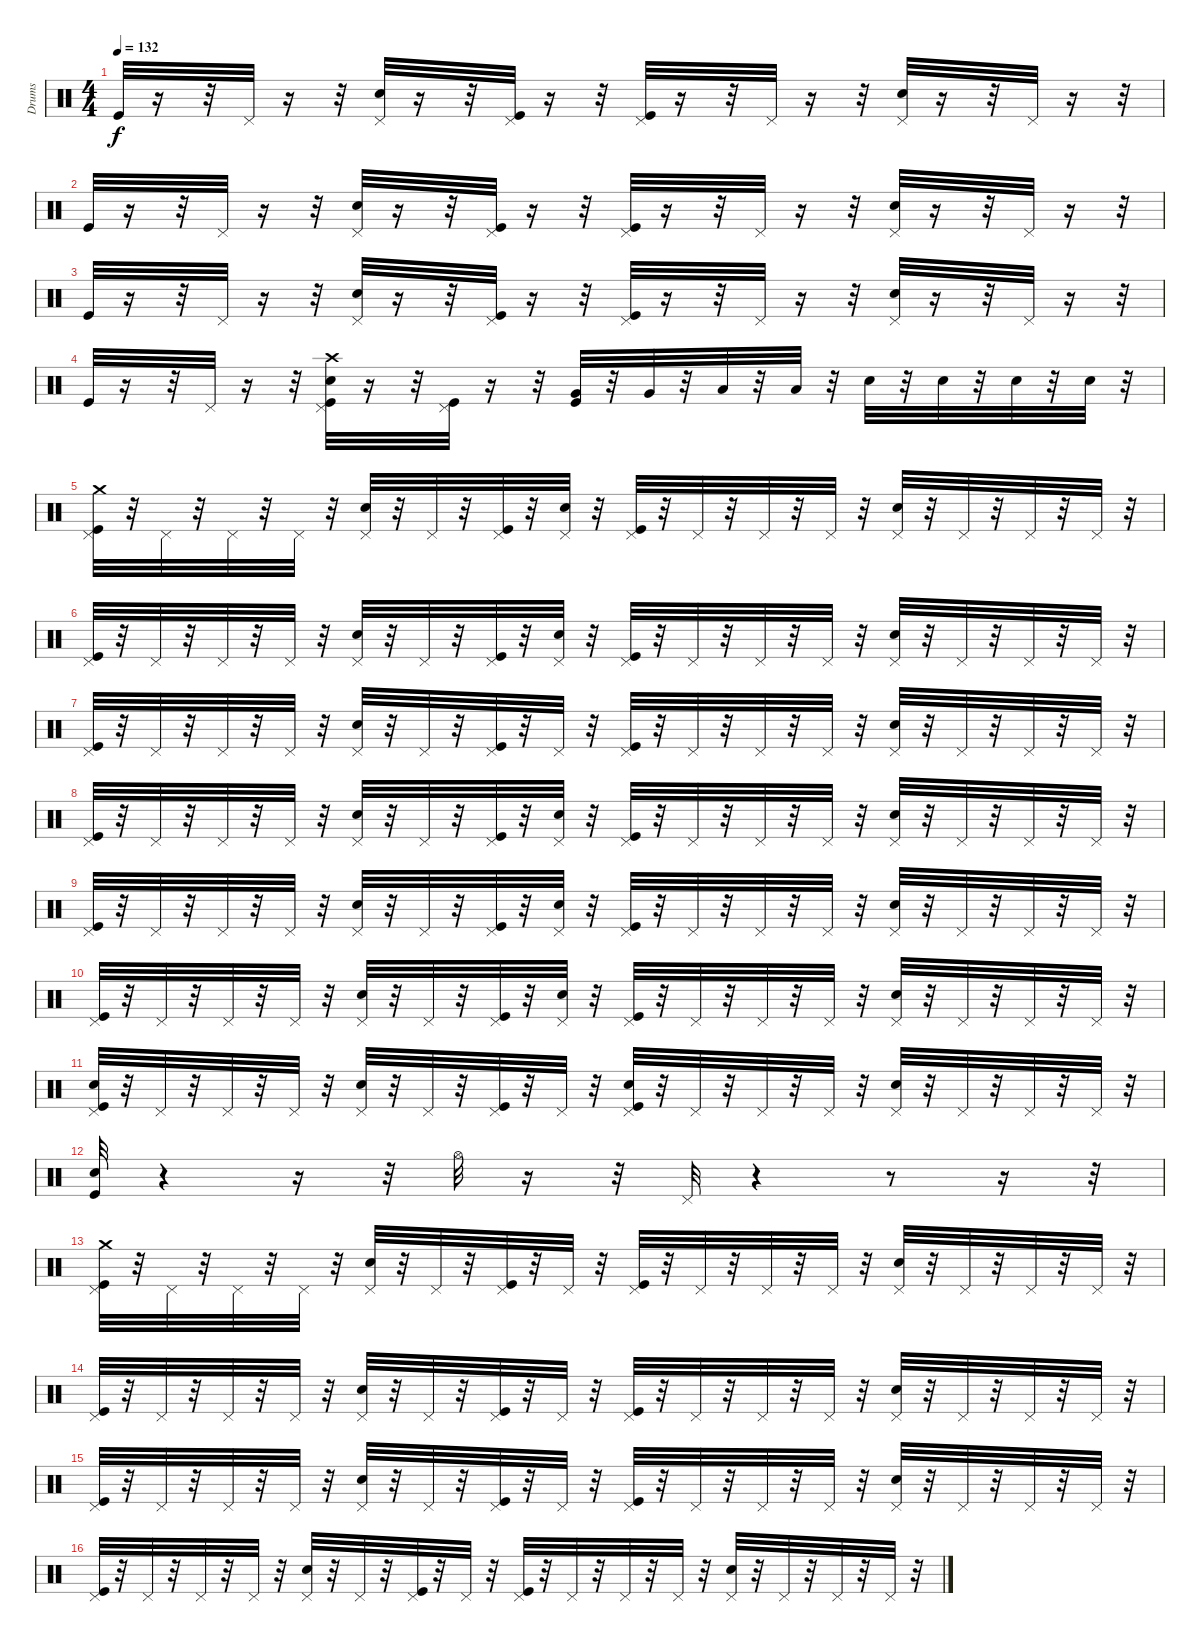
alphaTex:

\track ("Drums" "Drums") {instrument percussion}
\staff {score}
\articulation defaults
\ts (4 4)
\tempo 132
\clef neutral
\ks c "Kick (hit)".32{dy f}
r.16 r.32 "Pedal Hi-Hat (hit)".32 r.16 r.32 ("Electric Snare (hit)" "Pedal Hi-Hat (hit)").32 r.16 r.32 ("Kick (hit)" "Pedal Hi-Hat (hit)").32 r.16 r.32 ("Kick (hit)" "Pedal Hi-Hat (hit)").32 r.16 r.32 "Pedal Hi-Hat (hit)".32 r.16 r.32 ("Electric Snare (hit)" "Pedal Hi-Hat (hit)").32 r.16 r.32 "Pedal Hi-Hat (hit)".32 r.16 r.32 |
"Kick (hit)".32 r.16 r.32 "Pedal Hi-Hat (hit)".32 r.16 r.32 ("Electric Snare (hit)" "Pedal Hi-Hat (hit)").32 r.16 r.32 ("Kick (hit)" "Pedal Hi-Hat (hit)").32 r.16 r.32 ("Kick (hit)" "Pedal Hi-Hat (hit)").32 r.16 r.32 "Pedal Hi-Hat (hit)".32 r.16 r.32 ("Electric Snare (hit)" "Pedal Hi-Hat (hit)").32 r.16 r.32 "Pedal Hi-Hat (hit)".32 r.16 r.32 |
"Kick (hit)".32 r.16 r.32 "Pedal Hi-Hat (hit)".32 r.16 r.32 ("Electric Snare (hit)" "Pedal Hi-Hat (hit)").32 r.16 r.32 ("Kick (hit)" "Pedal Hi-Hat (hit)").32 r.16 r.32 ("Kick (hit)" "Pedal Hi-Hat (hit)").32 r.16 r.32 "Pedal Hi-Hat (hit)".32 r.16 r.32 ("Electric Snare (hit)" "Pedal Hi-Hat (hit)").32 r.16 r.32 "Pedal Hi-Hat (hit)".32 r.16 r.32 |
"Kick (hit)".32 r.16 r.32 "Pedal Hi-Hat (hit)".32 r.16 r.32 ("Kick (hit)" "Electric Snare (hit)" "Pedal Hi-Hat (hit)" "Crash high (hit)").32 r.16 r.32 ("Kick (hit)" "Pedal Hi-Hat (hit)").32 r.16 r.32 ("Very Low Tom (hit)" "Kick (hit)").32 r.32 "Very Low Tom (hit)".32 r.32 "Low Floor Tom (hit)".32 r.32 "Low Floor Tom (hit)".32 r.32 "Electric Snare (hit)".32 r.32 "Electric Snare (hit)".32 r.32 "Electric Snare (hit)".32 r.32 "Electric Snare (hit)".32 r.32 |
("Crash medium (hit)" "Kick (hit)" "Pedal Hi-Hat (hit)").32 r.32 "Pedal Hi-Hat (hit)".32 r.32 "Pedal Hi-Hat (hit)".32 r.32 "Pedal Hi-Hat (hit)".32 r.32 ("Pedal Hi-Hat (hit)" "Electric Snare (hit)").32 r.32 "Pedal Hi-Hat (hit)".32 r.32 ("Pedal Hi-Hat (hit)" "Kick (hit)").32 r.32 ("Electric Snare (hit)" "Pedal Hi-Hat (hit)").32 r.32 ("Pedal Hi-Hat (hit)" "Kick (hit)").32 r.32 "Pedal Hi-Hat (hit)".32 r.32 "Pedal Hi-Hat (hit)".32 r.32 "Pedal Hi-Hat (hit)".32 r.32 ("Pedal Hi-Hat (hit)" "Electric Snare (hit)").32 r.32 "Pedal Hi-Hat (hit)".32 r.32 "Pedal Hi-Hat (hit)".32 r.32 "Pedal Hi-Hat (hit)".32 r.32 |
("Pedal Hi-Hat (hit)" "Kick (hit)").32 r.32 "Pedal Hi-Hat (hit)".32 r.32 "Pedal Hi-Hat (hit)".32 r.32 "Pedal Hi-Hat (hit)".32 r.32 ("Pedal Hi-Hat (hit)" "Electric Snare (hit)").32 r.32 "Pedal Hi-Hat (hit)".32 r.32 ("Pedal Hi-Hat (hit)" "Kick (hit)").32 r.32 ("Electric Snare (hit)" "Pedal Hi-Hat (hit)").32 r.32 ("Pedal Hi-Hat (hit)" "Kick (hit)").32 r.32 "Pedal Hi-Hat (hit)".32 r.32 "Pedal Hi-Hat (hit)".32 r.32 "Pedal Hi-Hat (hit)".32 r.32 ("Pedal Hi-Hat (hit)" "Electric Snare (hit)").32 r.32 "Pedal Hi-Hat (hit)".32 r.32 "Pedal Hi-Hat (hit)".32 r.32 "Pedal Hi-Hat (hit)".32 r.32 |
("Pedal Hi-Hat (hit)" "Kick (hit)").32 r.32 "Pedal Hi-Hat (hit)".32 r.32 "Pedal Hi-Hat (hit)".32 r.32 "Pedal Hi-Hat (hit)".32 r.32 ("Pedal Hi-Hat (hit)" "Electric Snare (hit)").32 r.32 "Pedal Hi-Hat (hit)".32 r.32 ("Pedal Hi-Hat (hit)" "Kick (hit)").32 r.32 "Pedal Hi-Hat (hit)".32 r.32 ("Pedal Hi-Hat (hit)" "Kick (hit)").32 r.32 "Pedal Hi-Hat (hit)".32 r.32 "Pedal Hi-Hat (hit)".32 r.32 "Pedal Hi-Hat (hit)".32 r.32 ("Pedal Hi-Hat (hit)" "Electric Snare (hit)").32 r.32 "Pedal Hi-Hat (hit)".32 r.32 "Pedal Hi-Hat (hit)".32 r.32 "Pedal Hi-Hat (hit)".32 r.32 |
("Pedal Hi-Hat (hit)" "Kick (hit)").32 r.32 "Pedal Hi-Hat (hit)".32 r.32 "Pedal Hi-Hat (hit)".32 r.32 "Pedal Hi-Hat (hit)".32 r.32 ("Pedal Hi-Hat (hit)" "Electric Snare (hit)").32 r.32 "Pedal Hi-Hat (hit)".32 r.32 ("Pedal Hi-Hat (hit)" "Kick (hit)").32 r.32 ("Electric Snare (hit)" "Pedal Hi-Hat (hit)").32 r.32 ("Pedal Hi-Hat (hit)" "Kick (hit)").32 r.32 "Pedal Hi-Hat (hit)".32 r.32 "Pedal Hi-Hat (hit)".32 r.32 "Pedal Hi-Hat (hit)".32 r.32 ("Pedal Hi-Hat (hit)" "Electric Snare (hit)").32 r.32 "Pedal Hi-Hat (hit)".32 r.32 "Pedal Hi-Hat (hit)".32 r.32 "Pedal Hi-Hat (hit)".32 r.32 |
("Kick (hit)" "Pedal Hi-Hat (hit)").32 r.32 "Pedal Hi-Hat (hit)".32 r.32 "Pedal Hi-Hat (hit)".32 r.32 "Pedal Hi-Hat (hit)".32 r.32 ("Electric Snare (hit)" "Pedal Hi-Hat (hit)").32 r.32 "Pedal Hi-Hat (hit)".32 r.32 ("Kick (hit)" "Pedal Hi-Hat (hit)").32 r.32 ("Electric Snare (hit)" "Pedal Hi-Hat (hit)").32 r.32 ("Kick (hit)" "Pedal Hi-Hat (hit)").32 r.32 "Pedal Hi-Hat (hit)".32 r.32 "Pedal Hi-Hat (hit)".32 r.32 "Pedal Hi-Hat (hit)".32 r.32 ("Electric Snare (hit)" "Pedal Hi-Hat (hit)").32 r.32 "Pedal Hi-Hat (hit)".32 r.32 "Pedal Hi-Hat (hit)".32 r.32 "Pedal Hi-Hat (hit)".32 r.32 |
("Kick (hit)" "Pedal Hi-Hat (hit)").32 r.32 "Pedal Hi-Hat (hit)".32 r.32 "Pedal Hi-Hat (hit)".32 r.32 "Pedal Hi-Hat (hit)".32 r.32 ("Electric Snare (hit)" "Pedal Hi-Hat (hit)").32 r.32 "Pedal Hi-Hat (hit)".32 r.32 ("Kick (hit)" "Pedal Hi-Hat (hit)").32 r.32 ("Electric Snare (hit)" "Pedal Hi-Hat (hit)").32 r.32 ("Kick (hit)" "Pedal Hi-Hat (hit)").32 r.32 "Pedal Hi-Hat (hit)".32 r.32 "Pedal Hi-Hat (hit)".32 r.32 "Pedal Hi-Hat (hit)".32 r.32 ("Pedal Hi-Hat (hit)" "Electric Snare (hit)").32 r.32 "Pedal Hi-Hat (hit)".32 r.32 "Pedal Hi-Hat (hit)".32 r.32 "Pedal Hi-Hat (hit)".32 r.32 |
("Electric Snare (hit)" "Pedal Hi-Hat (hit)" "Kick (hit)").32 r.32 "Pedal Hi-Hat (hit)".32 r.32 "Pedal Hi-Hat (hit)".32 r.32 "Pedal Hi-Hat (hit)".32 r.32 ("Pedal Hi-Hat (hit)" "Electric Snare (hit)").32 r.32 "Pedal Hi-Hat (hit)".32 r.32 ("Pedal Hi-Hat (hit)" "Kick (hit)").32 r.32 "Pedal Hi-Hat (hit)".32 r.32 ("Electric Snare (hit)" "Pedal Hi-Hat (hit)" "Kick (hit)").32 r.32 "Pedal Hi-Hat (hit)".32 r.32 "Pedal Hi-Hat (hit)".32 r.32 "Pedal Hi-Hat (hit)".32 r.32 ("Pedal Hi-Hat (hit)" "Electric Snare (hit)").32 r.32 "Pedal Hi-Hat (hit)".32 r.32 "Pedal Hi-Hat (hit)".32 r.32 "Pedal Hi-Hat (hit)".32 r.32 |
("Electric Snare (hit)" "Kick (hit)").32 r.4 r.16 r.32 "Hi-Hat (open)".32 r.16 r.32 "Pedal Hi-Hat (hit)".32 r.4 r.8 r.16 r.32 |
("Crash medium (hit)" "Kick (hit)" "Pedal Hi-Hat (hit)").32 r.32 "Pedal Hi-Hat (hit)".32 r.32 "Pedal Hi-Hat (hit)".32 r.32 "Pedal Hi-Hat (hit)".32 r.32 ("Pedal Hi-Hat (hit)" "Electric Snare (hit)").32 r.32 "Pedal Hi-Hat (hit)".32 r.32 ("Pedal Hi-Hat (hit)" "Kick (hit)").32 r.32 "Pedal Hi-Hat (hit)".32 r.32 ("Pedal Hi-Hat (hit)" "Kick (hit)").32 r.32 "Pedal Hi-Hat (hit)".32 r.32 "Pedal Hi-Hat (hit)".32 r.32 "Pedal Hi-Hat (hit)".32 r.32 ("Pedal Hi-Hat (hit)" "Electric Snare (hit)").32 r.32 "Pedal Hi-Hat (hit)".32 r.32 "Pedal Hi-Hat (hit)".32 r.32 "Pedal Hi-Hat (hit)".32 r.32 |
("Pedal Hi-Hat (hit)" "Kick (hit)").32 r.32 "Pedal Hi-Hat (hit)".32 r.32 "Pedal Hi-Hat (hit)".32 r.32 "Pedal Hi-Hat (hit)".32 r.32 ("Pedal Hi-Hat (hit)" "Electric Snare (hit)").32 r.32 "Pedal Hi-Hat (hit)".32 r.32 ("Pedal Hi-Hat (hit)" "Kick (hit)").32 r.32 "Pedal Hi-Hat (hit)".32 r.32 ("Pedal Hi-Hat (hit)" "Kick (hit)").32 r.32 "Pedal Hi-Hat (hit)".32 r.32 "Pedal Hi-Hat (hit)".32 r.32 "Pedal Hi-Hat (hit)".32 r.32 ("Pedal Hi-Hat (hit)" "Electric Snare (hit)").32 r.32 "Pedal Hi-Hat (hit)".32 r.32 "Pedal Hi-Hat (hit)".32 r.32 "Pedal Hi-Hat (hit)".32 r.32 |
("Pedal Hi-Hat (hit)" "Kick (hit)").32 r.32 "Pedal Hi-Hat (hit)".32 r.32 "Pedal Hi-Hat (hit)".32 r.32 "Pedal Hi-Hat (hit)".32 r.32 ("Pedal Hi-Hat (hit)" "Electric Snare (hit)").32 r.32 "Pedal Hi-Hat (hit)".32 r.32 ("Pedal Hi-Hat (hit)" "Kick (hit)").32 r.32 "Pedal Hi-Hat (hit)".32 r.32 ("Pedal Hi-Hat (hit)" "Kick (hit)").32 r.32 "Pedal Hi-Hat (hit)".32 r.32 "Pedal Hi-Hat (hit)".32 r.32 "Pedal Hi-Hat (hit)".32 r.32 ("Pedal Hi-Hat (hit)" "Electric Snare (hit)").32 r.32 "Pedal Hi-Hat (hit)".32 r.32 "Pedal Hi-Hat (hit)".32 r.32 "Pedal Hi-Hat (hit)".32 r.32 |
("Pedal Hi-Hat (hit)" "Kick (hit)").32 r.32 "Pedal Hi-Hat (hit)".32 r.32 "Pedal Hi-Hat (hit)".32 r.32 "Pedal Hi-Hat (hit)".32 r.32 ("Pedal Hi-Hat (hit)" "Electric Snare (hit)").32 r.32 "Pedal Hi-Hat (hit)".32 r.32 ("Pedal Hi-Hat (hit)" "Kick (hit)").32 r.32 "Pedal Hi-Hat (hit)".32 r.32 ("Pedal Hi-Hat (hit)" "Kick (hit)").32 r.32 "Pedal Hi-Hat (hit)".32 r.32 "Pedal Hi-Hat (hit)".32 r.32 "Pedal Hi-Hat (hit)".32 r.32 ("Pedal Hi-Hat (hit)" "Electric Snare (hit)").32 r.32 "Pedal Hi-Hat (hit)".32 r.32 "Pedal Hi-Hat (hit)".32 r.32 "Pedal Hi-Hat (hit)".32 r.32
